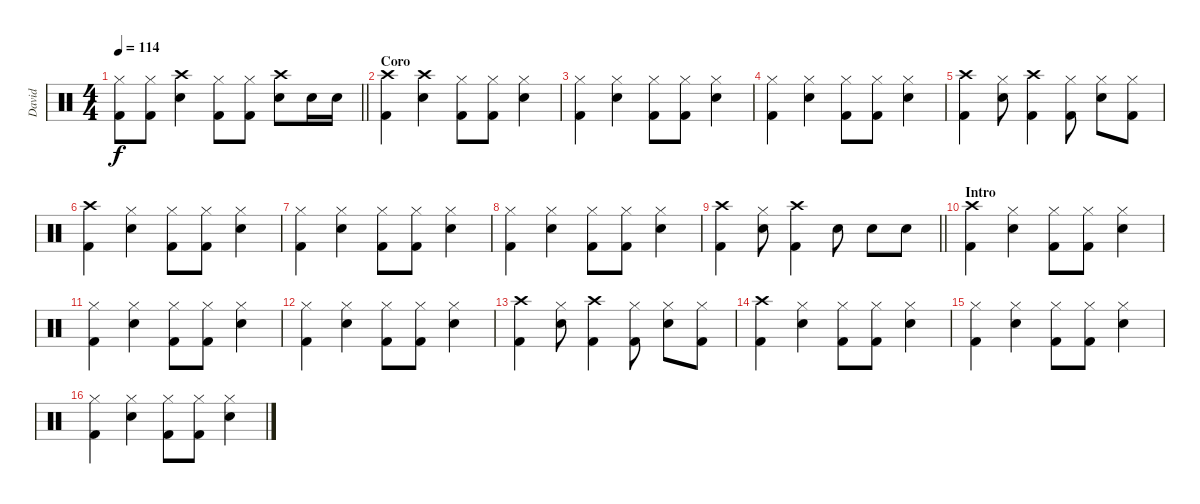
\track ("David" "David") {instrument percussion}
\staff {score}
\articulation defaults
\ts (4 4)
\tempo 114
\clef neutral
\barLineRight lightlight
\ks c
("Hi-Hat (closed)" "Kick (hit) 2").8{dy f} ("Hi-Hat (closed)" "Kick (hit) 2").8 ("Crash high (hit)" "Snare (hit) 2").4 ("Hi-Hat (closed)" "Kick (hit) 2").8 ("Hi-Hat (closed)" "Kick (hit) 2").8 ("Crash high (hit)" "Snare (hit) 2").8 "Snare (hit) 2".16 "Snare (hit) 2".16 |
\section ("" "Coro")
("Crash high (hit)" "Kick (hit) 2").4 ("Crash high (hit)" "Snare (hit) 2").4 ("Hi-Hat (closed)" "Kick (hit) 2").8 ("Hi-Hat (closed)" "Kick (hit) 2").8 ("Hi-Hat (closed)" "Snare (hit) 2").4 |
("Hi-Hat (closed)" "Kick (hit) 2").4 ("Hi-Hat (closed)" "Snare (hit) 2").4 ("Hi-Hat (closed)" "Kick (hit) 2").8 ("Hi-Hat (closed)" "Kick (hit) 2").8 ("Hi-Hat (closed)" "Snare (hit) 2").4 |
("Hi-Hat (closed)" "Kick (hit) 2").4 ("Hi-Hat (closed)" "Snare (hit) 2").4 ("Hi-Hat (closed)" "Kick (hit) 2").8 ("Hi-Hat (closed)" "Kick (hit) 2").8 ("Hi-Hat (closed)" "Snare (hit) 2").4 |
("Crash high (hit)" "Kick (hit) 2").4 ("Hi-Hat (closed)" "Snare (hit) 2").8 ("Crash high (hit)" "Kick (hit) 2").4 ("Hi-Hat (closed)" "Kick (hit) 2").8 ("Hi-Hat (closed)" "Snare (hit) 2").8 ("Hi-Hat (closed)" "Kick (hit) 2").8 |
("Crash high (hit)" "Kick (hit) 2").4 ("Hi-Hat (closed)" "Snare (hit) 2").4 ("Hi-Hat (closed)" "Kick (hit) 2").8 ("Hi-Hat (closed)" "Kick (hit) 2").8 ("Hi-Hat (closed)" "Snare (hit) 2").4 |
("Hi-Hat (closed)" "Kick (hit) 2").4 ("Hi-Hat (closed)" "Snare (hit) 2").4 ("Hi-Hat (closed)" "Kick (hit) 2").8 ("Hi-Hat (closed)" "Kick (hit) 2").8 ("Hi-Hat (closed)" "Snare (hit) 2").4 |
("Hi-Hat (closed)" "Kick (hit) 2").4 ("Hi-Hat (closed)" "Snare (hit) 2").4 ("Hi-Hat (closed)" "Kick (hit) 2").8 ("Hi-Hat (closed)" "Kick (hit) 2").8 ("Hi-Hat (closed)" "Snare (hit) 2").4 |
\barLineRight lightlight
("Crash high (hit)" "Kick (hit) 2").4 ("Hi-Hat (closed)" "Snare (hit) 2").8 ("Crash high (hit)" "Kick (hit) 2").4 "Snare (hit) 2".8 "Snare (hit) 2".8 "Snare (hit) 2".8 |
\section ("" "Intro")
("Crash high (hit)" "Kick (hit) 2").4 ("Hi-Hat (closed)" "Snare (hit) 2").4 ("Hi-Hat (closed)" "Kick (hit) 2").8 ("Hi-Hat (closed)" "Kick (hit) 2").8 ("Hi-Hat (closed)" "Snare (hit) 2").4 |
("Hi-Hat (closed)" "Kick (hit) 2").4 ("Hi-Hat (closed)" "Snare (hit) 2").4 ("Hi-Hat (closed)" "Kick (hit) 2").8 ("Hi-Hat (closed)" "Kick (hit) 2").8 ("Hi-Hat (closed)" "Snare (hit) 2").4 |
("Hi-Hat (closed)" "Kick (hit) 2").4 ("Hi-Hat (closed)" "Snare (hit) 2").4 ("Hi-Hat (closed)" "Kick (hit) 2").8 ("Hi-Hat (closed)" "Kick (hit) 2").8 ("Hi-Hat (closed)" "Snare (hit) 2").4 |
("Crash high (hit)" "Kick (hit) 2").4 ("Hi-Hat (closed)" "Snare (hit) 2").8 ("Crash high (hit)" "Kick (hit) 2").4 ("Hi-Hat (closed)" "Kick (hit) 2").8 ("Hi-Hat (closed)" "Snare (hit) 2").8 ("Hi-Hat (closed)" "Kick (hit) 2").8 |
("Crash high (hit)" "Kick (hit) 2").4 ("Hi-Hat (closed)" "Snare (hit) 2").4 ("Hi-Hat (closed)" "Kick (hit) 2").8 ("Hi-Hat (closed)" "Kick (hit) 2").8 ("Hi-Hat (closed)" "Snare (hit) 2").4 |
("Hi-Hat (closed)" "Kick (hit) 2").4 ("Hi-Hat (closed)" "Snare (hit) 2").4 ("Hi-Hat (closed)" "Kick (hit) 2").8 ("Hi-Hat (closed)" "Kick (hit) 2").8 ("Hi-Hat (closed)" "Snare (hit) 2").4 |
("Hi-Hat (closed)" "Kick (hit) 2").4 ("Hi-Hat (closed)" "Snare (hit) 2").4 ("Hi-Hat (closed)" "Kick (hit) 2").8 ("Hi-Hat (closed)" "Kick (hit) 2").8 ("Hi-Hat (closed)" "Snare (hit) 2").4
